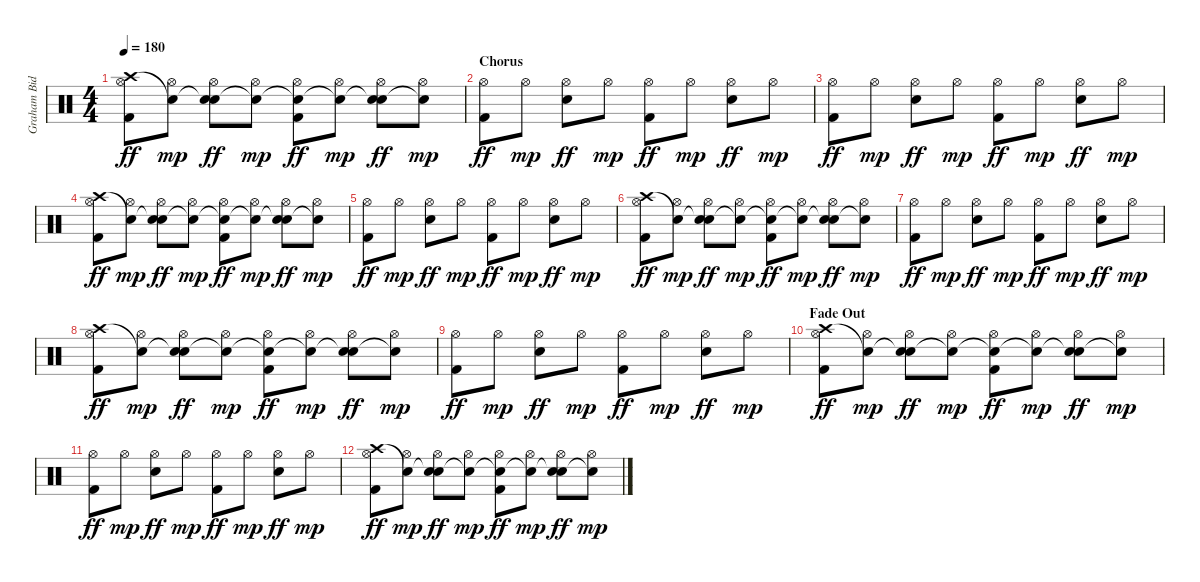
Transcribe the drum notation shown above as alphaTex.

\track ("Graham Bidstrup" "Graham Bid") {instrument percussion}
\staff {score}
\articulation defaults
\ts (4 4)
\tempo 180
\clef neutral
\ks c
("Crash high (hit)" "Hi-Hat (open)" "Kick (hit) 2").8{dy ff} ("Snare (hit)"{t} "Hi-Hat (open)").8{dy mp} ("Snare (hit)"{t} "Hi-Hat (open)" "Snare (hit) 2").8{dy ff} ("Snare (hit)"{t} "Hi-Hat (open)").8{dy mp} ("Snare (hit)"{t} "Hi-Hat (open)" "Kick (hit) 2").8{dy ff} ("Snare (hit)"{t} "Hi-Hat (open)").8{dy mp} ("Snare (hit)"{t} "Hi-Hat (open)" "Snare (hit) 2").8{dy ff} ("Snare (hit)"{t} "Hi-Hat (open)").8{dy mp} |
\section ("" "Chorus")
("Hi-Hat (open)" "Kick (hit) 2").8{dy ff} "Hi-Hat (open)".8{dy mp} ("Hi-Hat (open)" "Snare (hit) 2").8{dy ff} "Hi-Hat (open)".8{dy mp} ("Hi-Hat (open)" "Kick (hit) 2").8{dy ff} "Hi-Hat (open)".8{dy mp} ("Hi-Hat (open)" "Snare (hit) 2").8{dy ff} "Hi-Hat (open)".8{dy mp} |
("Hi-Hat (open)" "Kick (hit) 2").8{dy ff} "Hi-Hat (open)".8{dy mp} ("Hi-Hat (open)" "Snare (hit) 2").8{dy ff} "Hi-Hat (open)".8{dy mp} ("Hi-Hat (open)" "Kick (hit) 2").8{dy ff} "Hi-Hat (open)".8{dy mp} ("Hi-Hat (open)" "Snare (hit) 2").8{dy ff} "Hi-Hat (open)".8{dy mp} |
("Crash high (hit)" "Hi-Hat (open)" "Kick (hit) 2").8{dy ff} ("Snare (hit)"{t} "Hi-Hat (open)").8{dy mp} ("Snare (hit)"{t} "Hi-Hat (open)" "Snare (hit) 2").8{dy ff} ("Snare (hit)"{t} "Hi-Hat (open)").8{dy mp} ("Snare (hit)"{t} "Hi-Hat (open)" "Kick (hit) 2").8{dy ff} ("Snare (hit)"{t} "Hi-Hat (open)").8{dy mp} ("Snare (hit)"{t} "Hi-Hat (open)" "Snare (hit) 2").8{dy ff} ("Snare (hit)"{t} "Hi-Hat (open)").8{dy mp} |
("Hi-Hat (open)" "Kick (hit) 2").8{dy ff} "Hi-Hat (open)".8{dy mp} ("Hi-Hat (open)" "Snare (hit) 2").8{dy ff} "Hi-Hat (open)".8{dy mp} ("Hi-Hat (open)" "Kick (hit) 2").8{dy ff} "Hi-Hat (open)".8{dy mp} ("Hi-Hat (open)" "Snare (hit) 2").8{dy ff} "Hi-Hat (open)".8{dy mp} |
("Crash high (hit)" "Hi-Hat (open)" "Kick (hit) 2").8{dy ff} ("Snare (hit)"{t} "Hi-Hat (open)").8{dy mp} ("Snare (hit)"{t} "Hi-Hat (open)" "Snare (hit) 2").8{dy ff} ("Snare (hit)"{t} "Hi-Hat (open)").8{dy mp} ("Snare (hit)"{t} "Hi-Hat (open)" "Kick (hit) 2").8{dy ff} ("Snare (hit)"{t} "Hi-Hat (open)").8{dy mp} ("Snare (hit)"{t} "Hi-Hat (open)" "Snare (hit) 2").8{dy ff} ("Snare (hit)"{t} "Hi-Hat (open)").8{dy mp} |
("Hi-Hat (open)" "Kick (hit) 2").8{dy ff} "Hi-Hat (open)".8{dy mp} ("Hi-Hat (open)" "Snare (hit) 2").8{dy ff} "Hi-Hat (open)".8{dy mp} ("Hi-Hat (open)" "Kick (hit) 2").8{dy ff} "Hi-Hat (open)".8{dy mp} ("Hi-Hat (open)" "Snare (hit) 2").8{dy ff} "Hi-Hat (open)".8{dy mp} |
("Crash high (hit)" "Hi-Hat (open)" "Kick (hit) 2").8{dy ff} ("Snare (hit)"{t} "Hi-Hat (open)").8{dy mp} ("Snare (hit)"{t} "Hi-Hat (open)" "Snare (hit) 2").8{dy ff} ("Snare (hit)"{t} "Hi-Hat (open)").8{dy mp} ("Snare (hit)"{t} "Hi-Hat (open)" "Kick (hit) 2").8{dy ff} ("Snare (hit)"{t} "Hi-Hat (open)").8{dy mp} ("Snare (hit)"{t} "Hi-Hat (open)" "Snare (hit) 2").8{dy ff} ("Snare (hit)"{t} "Hi-Hat (open)").8{dy mp} |
("Hi-Hat (open)" "Kick (hit) 2").8{dy ff} "Hi-Hat (open)".8{dy mp} ("Hi-Hat (open)" "Snare (hit) 2").8{dy ff} "Hi-Hat (open)".8{dy mp} ("Hi-Hat (open)" "Kick (hit) 2").8{dy ff} "Hi-Hat (open)".8{dy mp} ("Hi-Hat (open)" "Snare (hit) 2").8{dy ff} "Hi-Hat (open)".8{dy mp} |
\section ("" "Fade Out")
("Crash high (hit)" "Hi-Hat (open)" "Kick (hit) 2").8{dy ff} ("Snare (hit)"{t} "Hi-Hat (open)").8{dy mp} ("Snare (hit)"{t} "Hi-Hat (open)" "Snare (hit) 2").8{dy ff} ("Snare (hit)"{t} "Hi-Hat (open)").8{dy mp} ("Snare (hit)"{t} "Hi-Hat (open)" "Kick (hit) 2").8{dy ff} ("Snare (hit)"{t} "Hi-Hat (open)").8{dy mp} ("Snare (hit)"{t} "Hi-Hat (open)" "Snare (hit) 2").8{dy ff} ("Snare (hit)"{t} "Hi-Hat (open)").8{dy mp} |
("Hi-Hat (open)" "Kick (hit) 2").8{dy ff} "Hi-Hat (open)".8{dy mp} ("Hi-Hat (open)" "Snare (hit) 2").8{dy ff} "Hi-Hat (open)".8{dy mp} ("Hi-Hat (open)" "Kick (hit) 2").8{dy ff} "Hi-Hat (open)".8{dy mp} ("Hi-Hat (open)" "Snare (hit) 2").8{dy ff} "Hi-Hat (open)".8{dy mp} |
("Crash high (hit)" "Hi-Hat (open)" "Kick (hit) 2").8{dy ff} ("Snare (hit)"{t} "Hi-Hat (open)").8{dy mp} ("Snare (hit)"{t} "Hi-Hat (open)" "Snare (hit) 2").8{dy ff} ("Snare (hit)"{t} "Hi-Hat (open)").8{dy mp} ("Snare (hit)"{t} "Hi-Hat (open)" "Kick (hit) 2").8{dy ff} ("Snare (hit)"{t} "Hi-Hat (open)").8{dy mp} ("Snare (hit)"{t} "Hi-Hat (open)" "Snare (hit) 2").8{dy ff} ("Snare (hit)"{t} "Hi-Hat (open)").8{dy mp}
